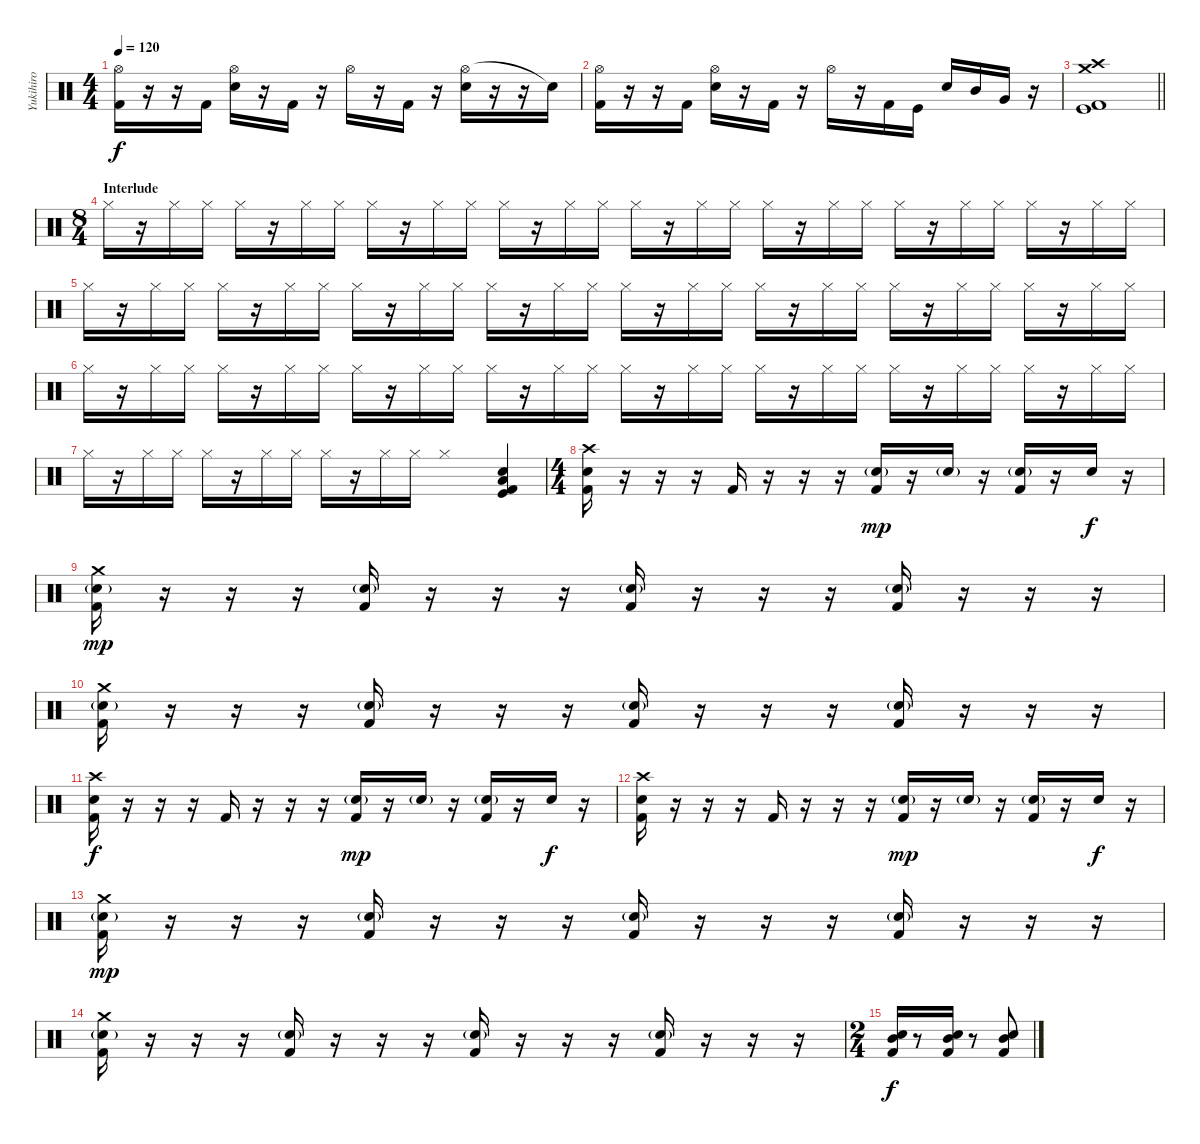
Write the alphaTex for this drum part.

\track ("Yukihiro" "Yukihiro") {instrument percussion}
\staff {score}
\articulation defaults
\ts (4 4)
\tempo 120
\clef neutral
\ks c
("Hi-Hat (open)" "Kick (hit) 2").16{dy f} r.16 r.16 "Kick (hit) 2".16 ("Hi-Hat (open)" "Snare (hit) 2").16 r.16 "Kick (hit) 2".16 r.16 "Hi-Hat (open)".16 r.16 "Kick (hit) 2".16 r.16 ("Hi-Hat (open)" "Snare (hit) 2").16 r.16 r.16 "Snare (hit)"{t}.16 |
("Hi-Hat (open)" "Kick (hit) 2").16 r.16 r.16 "Kick (hit) 2".16 ("Hi-Hat (open)" "Snare (hit) 2").16 r.16 "Kick (hit) 2".16 r.16 "Hi-Hat (open)".16 r.16 "Kick (hit) 2".16 "Kick (hit)".16 "Snare (hit) 2".16 "Mid Tom (hit)".16 "Very Low Tom (hit)".16 r.16 |
\barLineRight lightlight
("Crash high (hit)" "Crash medium (hit)" "Kick (hit)" "Kick (hit) 2").1 |
\ts (8 4)
\section ("" "Interlude")
"Hi-Hat (closed)".16 r.16 "Hi-Hat (closed)".16 "Hi-Hat (closed)".16 "Hi-Hat (closed)".16 r.16 "Hi-Hat (closed)".16 "Hi-Hat (closed)".16 "Hi-Hat (closed)".16 r.16 "Hi-Hat (closed)".16 "Hi-Hat (closed)".16 "Hi-Hat (closed)".16 r.16 "Hi-Hat (closed)".16 "Hi-Hat (closed)".16 "Hi-Hat (closed)".16 r.16 "Hi-Hat (closed)".16 "Hi-Hat (closed)".16 "Hi-Hat (closed)".16 r.16 "Hi-Hat (closed)".16 "Hi-Hat (closed)".16 "Hi-Hat (closed)".16 r.16 "Hi-Hat (closed)".16 "Hi-Hat (closed)".16 "Hi-Hat (closed)".16 r.16 "Hi-Hat (closed)".16 "Hi-Hat (closed)".16 |
"Hi-Hat (closed)".16 r.16 "Hi-Hat (closed)".16 "Hi-Hat (closed)".16 "Hi-Hat (closed)".16 r.16 "Hi-Hat (closed)".16 "Hi-Hat (closed)".16 "Hi-Hat (closed)".16 r.16 "Hi-Hat (closed)".16 "Hi-Hat (closed)".16 "Hi-Hat (closed)".16 r.16 "Hi-Hat (closed)".16 "Hi-Hat (closed)".16 "Hi-Hat (closed)".16 r.16 "Hi-Hat (closed)".16 "Hi-Hat (closed)".16 "Hi-Hat (closed)".16 r.16 "Hi-Hat (closed)".16 "Hi-Hat (closed)".16 "Hi-Hat (closed)".16 r.16 "Hi-Hat (closed)".16 "Hi-Hat (closed)".16 "Hi-Hat (closed)".16 r.16 "Hi-Hat (closed)".16 "Hi-Hat (closed)".16 |
"Hi-Hat (closed)".16 r.16 "Hi-Hat (closed)".16 "Hi-Hat (closed)".16 "Hi-Hat (closed)".16 r.16 "Hi-Hat (closed)".16 "Hi-Hat (closed)".16 "Hi-Hat (closed)".16 r.16 "Hi-Hat (closed)".16 "Hi-Hat (closed)".16 "Hi-Hat (closed)".16 r.16 "Hi-Hat (closed)".16 "Hi-Hat (closed)".16 "Hi-Hat (closed)".16 r.16 "Hi-Hat (closed)".16 "Hi-Hat (closed)".16 "Hi-Hat (closed)".16 r.16 "Hi-Hat (closed)".16 "Hi-Hat (closed)".16 "Hi-Hat (closed)".16 r.16 "Hi-Hat (closed)".16 "Hi-Hat (closed)".16 "Hi-Hat (closed)".16 r.16 "Hi-Hat (closed)".16 "Hi-Hat (closed)".16 |
"Hi-Hat (closed)".16 r.16 "Hi-Hat (closed)".16 "Hi-Hat (closed)".16 "Hi-Hat (closed)".16 r.16 "Hi-Hat (closed)".16 "Hi-Hat (closed)".16 "Hi-Hat (closed)".16 r.16 "Hi-Hat (closed)".16 "Hi-Hat (closed)".16 "Hi-Hat (closed)".1 ("Snare (hit) 2" "Low Tom (hit)" "Kick (hit)" "Kick (hit) 2").4 |
\ts (4 4)
("Crash high (hit)" "Snare (hit) 2" "Kick (hit) 2").16 r.16 r.16 r.16 "Kick (hit) 2".16 r.16 r.16 r.16 ("Snare (hit) 2"{g} "Kick (hit) 2").16{dy mp} r.16 "Snare (hit) 2"{g}.16 r.16 ("Snare (hit) 2"{g} "Kick (hit) 2").16 r.16 "Snare (hit) 2".16{dy f} r.16 |
("Crash medium (hit)" "Snare (hit) 2"{g} "Kick (hit) 2").16{dy mp} r.16 r.16 r.16 ("Snare (hit) 2"{g} "Kick (hit) 2").16 r.16 r.16 r.16 ("Snare (hit) 2"{g} "Kick (hit) 2").16 r.16 r.16 r.16 ("Snare (hit) 2"{g} "Kick (hit) 2").16 r.16 r.16 r.16 |
("Crash medium (hit)" "Snare (hit) 2"{g} "Kick (hit) 2").16 r.16 r.16 r.16 ("Snare (hit) 2"{g} "Kick (hit) 2").16 r.16 r.16 r.16 ("Snare (hit) 2"{g} "Kick (hit) 2").16 r.16 r.16 r.16 ("Snare (hit) 2"{g} "Kick (hit) 2").16 r.16 r.16 r.16 |
("Crash high (hit)" "Snare (hit) 2" "Kick (hit) 2").16{dy f} r.16 r.16 r.16 "Kick (hit) 2".16 r.16 r.16 r.16 ("Snare (hit) 2"{g} "Kick (hit) 2").16{dy mp} r.16 "Snare (hit) 2"{g}.16 r.16 ("Snare (hit) 2"{g} "Kick (hit) 2").16 r.16 "Snare (hit) 2".16{dy f} r.16 |
("Crash high (hit)" "Snare (hit) 2" "Kick (hit) 2").16 r.16 r.16 r.16 "Kick (hit) 2".16 r.16 r.16 r.16 ("Snare (hit) 2"{g} "Kick (hit) 2").16{dy mp} r.16 "Snare (hit) 2"{g}.16 r.16 ("Snare (hit) 2"{g} "Kick (hit) 2").16 r.16 "Snare (hit) 2".16{dy f} r.16 |
("Crash medium (hit)" "Snare (hit) 2"{g} "Kick (hit) 2").16{dy mp} r.16 r.16 r.16 ("Snare (hit) 2"{g} "Kick (hit) 2").16 r.16 r.16 r.16 ("Snare (hit) 2"{g} "Kick (hit) 2").16 r.16 r.16 r.16 ("Snare (hit) 2"{g} "Kick (hit) 2").16 r.16 r.16 r.16 |
("Crash medium (hit)" "Snare (hit) 2"{g} "Kick (hit) 2").16 r.16 r.16 r.16 ("Snare (hit) 2"{g} "Kick (hit) 2").16 r.16 r.16 r.16 ("Snare (hit) 2"{g} "Kick (hit) 2").16 r.16 r.16 r.16 ("Snare (hit) 2"{g} "Kick (hit) 2").16 r.16 r.16 r.16 |
\ts (2 4)
("Snare (hit) 2" "Mid Tom (hit)" "Kick (hit) 2").16{dy f} r.8 ("Snare (hit) 2" "Mid Tom (hit)" "Kick (hit) 2").16 r.8 ("Snare (hit) 2" "Mid Tom (hit)" "Kick (hit) 2").8
